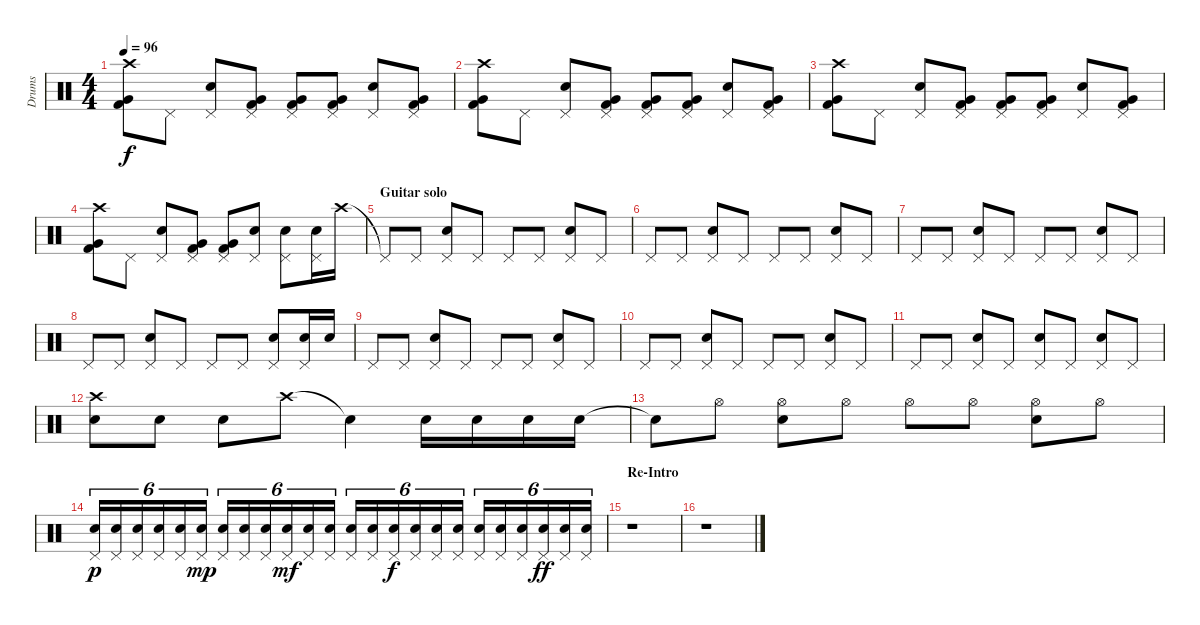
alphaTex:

\track ("Drums" "Drums") {instrument percussion}
\staff {score}
\articulation defaults
\ts (4 4)
\tempo 96
\clef neutral
\ks c
("Crash high (hit)" "Very Low Tom (hit)" "Kick (hit) 2").8{dy f} "Pedal Hi-Hat (hit)".8 ("Pedal Hi-Hat (hit)" "Electric Snare (hit)").8 ("Pedal Hi-Hat (hit)" "Very Low Tom (hit)" "Kick (hit) 2").8 ("Pedal Hi-Hat (hit)" "Very Low Tom (hit)" "Kick (hit) 2").8 ("Pedal Hi-Hat (hit)" "Very Low Tom (hit)" "Kick (hit) 2").8 ("Pedal Hi-Hat (hit)" "Electric Snare (hit)").8 ("Pedal Hi-Hat (hit)" "Very Low Tom (hit)" "Kick (hit) 2").8 |
("Crash high (hit)" "Very Low Tom (hit)" "Kick (hit) 2").8 "Pedal Hi-Hat (hit)".8 ("Pedal Hi-Hat (hit)" "Electric Snare (hit)").8 ("Pedal Hi-Hat (hit)" "Very Low Tom (hit)" "Kick (hit) 2").8 ("Pedal Hi-Hat (hit)" "Very Low Tom (hit)" "Kick (hit) 2").8 ("Pedal Hi-Hat (hit)" "Very Low Tom (hit)" "Kick (hit) 2").8 ("Pedal Hi-Hat (hit)" "Electric Snare (hit)").8 ("Pedal Hi-Hat (hit)" "Very Low Tom (hit)" "Kick (hit) 2").8 |
("Crash high (hit)" "Very Low Tom (hit)" "Kick (hit) 2").8 "Pedal Hi-Hat (hit)".8 ("Pedal Hi-Hat (hit)" "Electric Snare (hit)").8 ("Pedal Hi-Hat (hit)" "Very Low Tom (hit)" "Kick (hit) 2").8 ("Pedal Hi-Hat (hit)" "Very Low Tom (hit)" "Kick (hit) 2").8 ("Pedal Hi-Hat (hit)" "Very Low Tom (hit)" "Kick (hit) 2").8 ("Pedal Hi-Hat (hit)" "Electric Snare (hit)").8 ("Pedal Hi-Hat (hit)" "Very Low Tom (hit)" "Kick (hit) 2").8 |
("Crash high (hit)" "Very Low Tom (hit)" "Kick (hit) 2").8 "Pedal Hi-Hat (hit)".8 ("Pedal Hi-Hat (hit)" "Electric Snare (hit)").8 ("Pedal Hi-Hat (hit)" "Very Low Tom (hit)" "Kick (hit) 2").8 ("Pedal Hi-Hat (hit)" "Very Low Tom (hit)" "Kick (hit) 2").8 ("Pedal Hi-Hat (hit)" "Electric Snare (hit)").8 ("Pedal Hi-Hat (hit)" "Electric Snare (hit)").8 ("Pedal Hi-Hat (hit)" "Electric Snare (hit)").16 "Crash high (hit)".16 |
\section ("" "Guitar solo")
"Pedal Hi-Hat (hit)"{t}.8 "Pedal Hi-Hat (hit)".8 ("Pedal Hi-Hat (hit)" "Electric Snare (hit)").8 "Pedal Hi-Hat (hit)".8 "Pedal Hi-Hat (hit)".8 "Pedal Hi-Hat (hit)".8 ("Pedal Hi-Hat (hit)" "Electric Snare (hit)").8 "Pedal Hi-Hat (hit)".8 |
"Pedal Hi-Hat (hit)".8 "Pedal Hi-Hat (hit)".8 ("Pedal Hi-Hat (hit)" "Electric Snare (hit)").8 "Pedal Hi-Hat (hit)".8 "Pedal Hi-Hat (hit)".8 "Pedal Hi-Hat (hit)".8 ("Pedal Hi-Hat (hit)" "Electric Snare (hit)").8 "Pedal Hi-Hat (hit)".8 |
"Pedal Hi-Hat (hit)".8 "Pedal Hi-Hat (hit)".8 ("Pedal Hi-Hat (hit)" "Electric Snare (hit)").8 "Pedal Hi-Hat (hit)".8 "Pedal Hi-Hat (hit)".8 "Pedal Hi-Hat (hit)".8 ("Pedal Hi-Hat (hit)" "Electric Snare (hit)").8 "Pedal Hi-Hat (hit)".8 |
"Pedal Hi-Hat (hit)".8 "Pedal Hi-Hat (hit)".8 ("Pedal Hi-Hat (hit)" "Electric Snare (hit)").8 "Pedal Hi-Hat (hit)".8 "Pedal Hi-Hat (hit)".8 "Pedal Hi-Hat (hit)".8 ("Pedal Hi-Hat (hit)" "Electric Snare (hit)").8 ("Pedal Hi-Hat (hit)" "Electric Snare (hit)").16 "Electric Snare (hit)".16 |
"Pedal Hi-Hat (hit)".8 "Pedal Hi-Hat (hit)".8 ("Pedal Hi-Hat (hit)" "Electric Snare (hit)").8 "Pedal Hi-Hat (hit)".8 "Pedal Hi-Hat (hit)".8 "Pedal Hi-Hat (hit)".8 ("Pedal Hi-Hat (hit)" "Electric Snare (hit)").8 "Pedal Hi-Hat (hit)".8 |
"Pedal Hi-Hat (hit)".8 "Pedal Hi-Hat (hit)".8 ("Pedal Hi-Hat (hit)" "Electric Snare (hit)").8 "Pedal Hi-Hat (hit)".8 "Pedal Hi-Hat (hit)".8 "Pedal Hi-Hat (hit)".8 ("Pedal Hi-Hat (hit)" "Electric Snare (hit)").8 "Pedal Hi-Hat (hit)".8 |
"Pedal Hi-Hat (hit)".8 "Pedal Hi-Hat (hit)".8 ("Pedal Hi-Hat (hit)" "Electric Snare (hit)").8 "Pedal Hi-Hat (hit)".8 ("Pedal Hi-Hat (hit)" "Electric Snare (hit)").8 "Pedal Hi-Hat (hit)".8 ("Pedal Hi-Hat (hit)" "Electric Snare (hit)").8 "Pedal Hi-Hat (hit)".8 |
("Crash high (hit)" "Electric Snare (hit)").8 "Electric Snare (hit)".8 "Electric Snare (hit)".8 "Crash high (hit)".8 "Snare (hit)"{t}.4 "Electric Snare (hit)".16 "Electric Snare (hit)".16 "Electric Snare (hit)".16 "Electric Snare (hit)".16 |
"Snare (hit)"{t}.8 "Hi-Hat (open)".8 ("Hi-Hat (open)" "Electric Snare (hit)").8 "Hi-Hat (open)".8 "Hi-Hat (open)".8 "Hi-Hat (open)".8 ("Hi-Hat (open)" "Electric Snare (hit)").8 "Hi-Hat (open)".8 |
("Pedal Hi-Hat (hit)" "Electric Snare (hit)").16{tu (6 4) dy p} ("Pedal Hi-Hat (hit)" "Electric Snare (hit)").16{tu (6 4)} ("Pedal Hi-Hat (hit)" "Electric Snare (hit)").16{tu (6 4)} ("Pedal Hi-Hat (hit)" "Electric Snare (hit)").16{tu (6 4)} ("Pedal Hi-Hat (hit)" "Electric Snare (hit)").16{tu (6 4)} ("Pedal Hi-Hat (hit)" "Electric Snare (hit)").16{tu (6 4) dy mp} ("Pedal Hi-Hat (hit)" "Electric Snare (hit)").16{tu (6 4)} ("Pedal Hi-Hat (hit)" "Electric Snare (hit)").16{tu (6 4)} ("Pedal Hi-Hat (hit)" "Electric Snare (hit)").16{tu (6 4)} ("Pedal Hi-Hat (hit)" "Electric Snare (hit)").16{tu (6 4) dy mf} ("Pedal Hi-Hat (hit)" "Electric Snare (hit)").16{tu (6 4)} ("Pedal Hi-Hat (hit)" "Electric Snare (hit)").16{tu (6 4)} ("Pedal Hi-Hat (hit)" "Electric Snare (hit)").16{tu (6 4)} ("Pedal Hi-Hat (hit)" "Electric Snare (hit)").16{tu (6 4)} ("Pedal Hi-Hat (hit)" "Electric Snare (hit)").16{tu (6 4) dy f} ("Pedal Hi-Hat (hit)" "Electric Snare (hit)").16{tu (6 4)} ("Pedal Hi-Hat (hit)" "Electric Snare (hit)").16{tu (6 4)} ("Pedal Hi-Hat (hit)" "Electric Snare (hit)").16{tu (6 4)} ("Pedal Hi-Hat (hit)" "Electric Snare (hit)").16{tu (6 4)} ("Pedal Hi-Hat (hit)" "Electric Snare (hit)").16{tu (6 4)} ("Pedal Hi-Hat (hit)" "Electric Snare (hit)").16{tu (6 4)} ("Pedal Hi-Hat (hit)" "Electric Snare (hit)").16{tu (6 4) dy ff} ("Pedal Hi-Hat (hit)" "Electric Snare (hit)").16{tu (6 4)} ("Pedal Hi-Hat (hit)" "Electric Snare (hit)").16{tu (6 4)} |
\section ("" "Re-Intro")
r.1 |
r.1
